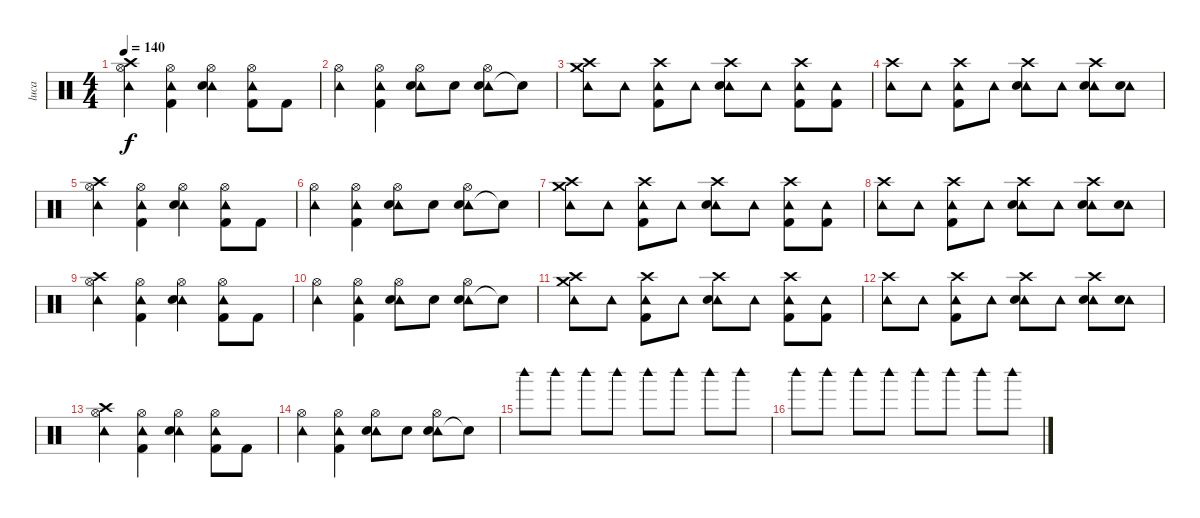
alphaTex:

\track ("luca" "luca") {instrument percussion}
\staff {score}
\articulation defaults
\ts (4 4)
\tempo 140
\clef neutral
\ks c
("Crash high (hit)" "Hi-Hat (open)" "Tambourine (hit)").4{dy f} ("Tambourine (hit)" "Hi-Hat (open)" "Kick (hit) 2").4 ("Tambourine (hit)" "Hi-Hat (open)" "Snare (hit) 2").4 ("Tambourine (hit)" "Hi-Hat (open)" "Kick (hit) 2").8 "Kick (hit) 2".8 |
("Tambourine (hit)" "Hi-Hat (open)").4 ("Tambourine (hit)" "Hi-Hat (open)" "Kick (hit) 2").4 ("Tambourine (hit)" "Hi-Hat (open)" "Snare (hit) 2").8 "Snare (hit) 2".8 ("Tambourine (hit)" "Hi-Hat (open)" "Snare (hit) 2").8 "Snare (hit)"{t}.8 |
("Crash medium (hit)" "Crash high (hit)" "Tambourine (hit)").8 "Tambourine (hit)".8 ("Tambourine (hit)" "Crash high (hit)" "Kick (hit) 2").8 "Tambourine (hit)".8 ("Tambourine (hit)" "Crash high (hit)" "Snare (hit) 2").8 "Tambourine (hit)".8 ("Tambourine (hit)" "Crash high (hit)" "Kick (hit) 2").8 ("Tambourine (hit)" "Kick (hit) 2").8 |
("Tambourine (hit)" "Crash high (hit)").8 "Tambourine (hit)".8 ("Tambourine (hit)" "Crash high (hit)" "Kick (hit) 2").8 "Tambourine (hit)".8 ("Tambourine (hit)" "Crash high (hit)" "Snare (hit) 2").8 "Tambourine (hit)".8 ("Tambourine (hit)" "Crash high (hit)" "Snare (hit) 2").8 ("Tambourine (hit)" "Snare (hit) 2").8 |
("Crash high (hit)" "Hi-Hat (open)" "Tambourine (hit)").4 ("Tambourine (hit)" "Hi-Hat (open)" "Kick (hit) 2").4 ("Tambourine (hit)" "Hi-Hat (open)" "Snare (hit) 2").4 ("Tambourine (hit)" "Hi-Hat (open)" "Kick (hit) 2").8 "Kick (hit) 2".8 |
("Tambourine (hit)" "Hi-Hat (open)").4 ("Tambourine (hit)" "Hi-Hat (open)" "Kick (hit) 2").4 ("Tambourine (hit)" "Hi-Hat (open)" "Snare (hit) 2").8 "Snare (hit) 2".8 ("Tambourine (hit)" "Hi-Hat (open)" "Snare (hit) 2").8 "Snare (hit)"{t}.8 |
("Crash medium (hit)" "Crash high (hit)" "Tambourine (hit)").8 "Tambourine (hit)".8 ("Tambourine (hit)" "Crash high (hit)" "Kick (hit) 2").8 "Tambourine (hit)".8 ("Tambourine (hit)" "Crash high (hit)" "Snare (hit) 2").8 "Tambourine (hit)".8 ("Tambourine (hit)" "Crash high (hit)" "Kick (hit) 2").8 ("Tambourine (hit)" "Kick (hit) 2").8 |
("Tambourine (hit)" "Crash high (hit)").8 "Tambourine (hit)".8 ("Tambourine (hit)" "Crash high (hit)" "Kick (hit) 2").8 "Tambourine (hit)".8 ("Tambourine (hit)" "Crash high (hit)" "Snare (hit) 2").8 "Tambourine (hit)".8 ("Tambourine (hit)" "Crash high (hit)" "Snare (hit) 2").8 ("Tambourine (hit)" "Snare (hit) 2").8 |
("Crash high (hit)" "Hi-Hat (open)" "Tambourine (hit)").4 ("Tambourine (hit)" "Hi-Hat (open)" "Kick (hit) 2").4 ("Tambourine (hit)" "Hi-Hat (open)" "Snare (hit) 2").4 ("Tambourine (hit)" "Hi-Hat (open)" "Kick (hit) 2").8 "Kick (hit) 2".8 |
("Tambourine (hit)" "Hi-Hat (open)").4 ("Tambourine (hit)" "Hi-Hat (open)" "Kick (hit) 2").4 ("Tambourine (hit)" "Hi-Hat (open)" "Snare (hit) 2").8 "Snare (hit) 2".8 ("Tambourine (hit)" "Hi-Hat (open)" "Snare (hit) 2").8 "Snare (hit)"{t}.8 |
("Crash medium (hit)" "Crash high (hit)" "Tambourine (hit)").8 "Tambourine (hit)".8 ("Tambourine (hit)" "Crash high (hit)" "Kick (hit) 2").8 "Tambourine (hit)".8 ("Tambourine (hit)" "Crash high (hit)" "Snare (hit) 2").8 "Tambourine (hit)".8 ("Tambourine (hit)" "Crash high (hit)" "Kick (hit) 2").8 ("Tambourine (hit)" "Kick (hit) 2").8 |
("Tambourine (hit)" "Crash high (hit)").8 "Tambourine (hit)".8 ("Tambourine (hit)" "Crash high (hit)" "Kick (hit) 2").8 "Tambourine (hit)".8 ("Tambourine (hit)" "Crash high (hit)" "Snare (hit) 2").8 "Tambourine (hit)".8 ("Tambourine (hit)" "Crash high (hit)" "Snare (hit) 2").8 ("Tambourine (hit)" "Snare (hit) 2").8 |
("Crash high (hit)" "Hi-Hat (open)" "Tambourine (hit)").4 ("Tambourine (hit)" "Hi-Hat (open)" "Kick (hit) 2").4 ("Tambourine (hit)" "Hi-Hat (open)" "Snare (hit) 2").4 ("Tambourine (hit)" "Hi-Hat (open)" "Kick (hit) 2").8 "Kick (hit) 2".8 |
("Tambourine (hit)" "Hi-Hat (open)").4 ("Tambourine (hit)" "Hi-Hat (open)" "Kick (hit) 2").4 ("Tambourine (hit)" "Hi-Hat (open)" "Snare (hit) 2").8 "Snare (hit) 2".8 ("Tambourine (hit)" "Hi-Hat (open)" "Snare (hit) 2").8 "Snare (hit)"{t}.8 |
"Woodblock high (hit)".8 "Woodblock high (hit)".8 "Woodblock high (hit)".8 "Woodblock high (hit)".8 "Woodblock high (hit)".8 "Woodblock high (hit)".8 "Woodblock high (hit)".8 "Woodblock high (hit)".8 |
"Woodblock high (hit)".8 "Woodblock high (hit)".8 "Woodblock high (hit)".8 "Woodblock high (hit)".8 "Woodblock high (hit)".8 "Woodblock high (hit)".8 "Woodblock high (hit)".8 "Woodblock high (hit)".8
